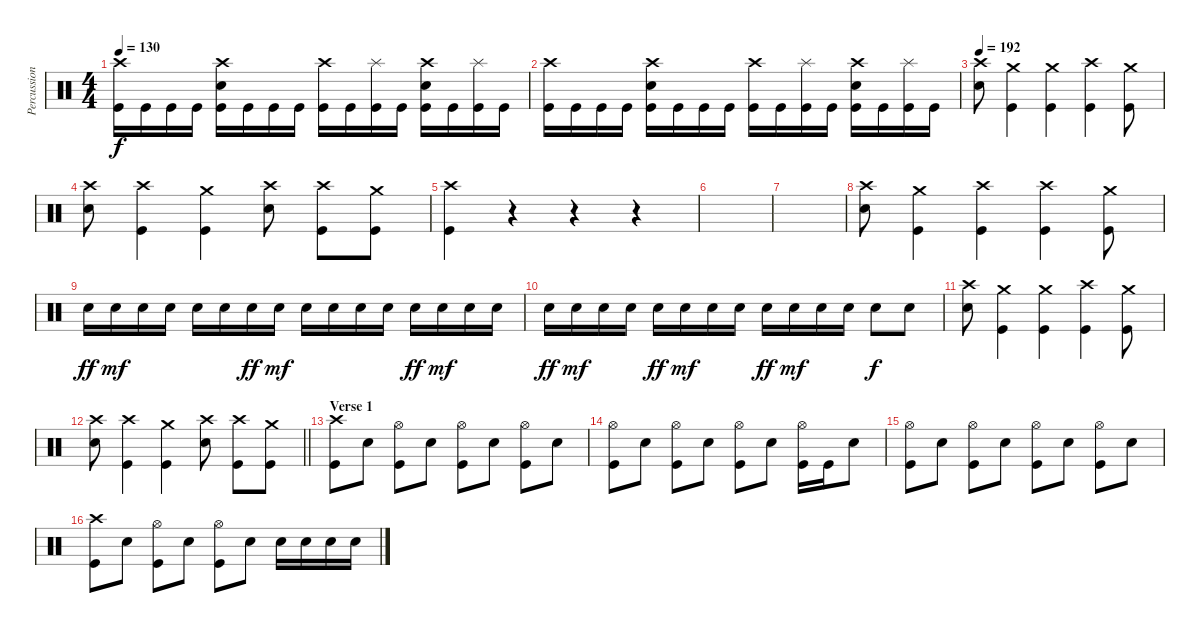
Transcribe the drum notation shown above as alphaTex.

\track ("Percussion" "Percussion") {instrument percussion}
\staff {score}
\articulation defaults
\ts (4 4)
\tempo 130
\clef neutral
\ks c
("Crash high (hit)" "Kick (hit)").16{dy f} "Kick (hit)".16 "Kick (hit)".16 "Kick (hit)".16 ("Crash high (hit)" "Snare (hit) 2" "Kick (hit)").16 "Kick (hit)".16 "Kick (hit)".16 "Kick (hit)".16 ("Crash high (hit)" "Kick (hit)").16 "Kick (hit)".16 ("Splash (hit)" "Kick (hit)").16 "Kick (hit)".16 ("Snare (hit) 2" "Crash high (hit)" "Kick (hit)").16 "Kick (hit)".16 ("Splash (hit)" "Kick (hit)").16 "Kick (hit)".16 |
("Crash high (hit)" "Kick (hit)").16 "Kick (hit)".16 "Kick (hit)".16 "Kick (hit)".16 ("Crash high (hit)" "Snare (hit) 2" "Kick (hit)").16 "Kick (hit)".16 "Kick (hit)".16 "Kick (hit)".16 ("Crash high (hit)" "Kick (hit)").16 "Kick (hit)".16 ("Splash (hit)" "Kick (hit)").16 "Kick (hit)".16 ("Snare (hit) 2" "Crash high (hit)" "Kick (hit)").16 "Kick (hit)".16 ("Splash (hit)" "Kick (hit)").16 "Kick (hit)".16 |
\tempo 192
("Crash high (hit)" "Snare (hit) 2").8 ("Crash medium (hit)" "Kick (hit)").4 ("Crash medium (hit)" "Kick (hit)").4 ("Crash high (hit)" "Kick (hit)").4 ("Crash medium (hit)" "Kick (hit)").8 |
("Crash high (hit)" "Snare (hit) 2").8 ("Crash high (hit)" "Kick (hit)").4 ("Crash medium (hit)" "Kick (hit)").4 ("Snare (hit) 2" "Crash high (hit)").8 ("Crash high (hit)" "Kick (hit)").8 ("Kick (hit)" "Crash medium (hit)").8 |
("Crash high (hit)" "Kick (hit)").4 r.4 r.4 r.4 |
|
|
("Crash high (hit)" "Snare (hit) 2").8 ("Crash medium (hit)" "Kick (hit)").4 ("Crash high (hit)" "Kick (hit)").4 ("Kick (hit)" "Crash high (hit)").4 ("Crash medium (hit)" "Kick (hit)").8 |
"Snare (hit) 2".16{dy ff} "Snare (hit) 2".16{dy mf} "Snare (hit) 2".16 "Snare (hit) 2".16 "Snare (hit) 2".16 "Snare (hit) 2".16 "Snare (hit) 2".16{dy ff} "Snare (hit) 2".16{dy mf} "Snare (hit) 2".16 "Snare (hit) 2".16 "Snare (hit) 2".16 "Snare (hit) 2".16 "Snare (hit) 2".16{dy ff} "Snare (hit) 2".16{dy mf} "Snare (hit) 2".16 "Snare (hit) 2".16 |
"Snare (hit) 2".16{dy ff} "Snare (hit) 2".16{dy mf} "Snare (hit) 2".16 "Snare (hit) 2".16 "Snare (hit) 2".16{dy ff} "Snare (hit) 2".16{dy mf} "Snare (hit) 2".16 "Snare (hit) 2".16 "Snare (hit) 2".16{dy ff} "Snare (hit) 2".16{dy mf} "Snare (hit) 2".16 "Snare (hit) 2".16 "Snare (hit) 2".8{dy f} "Snare (hit) 2".8 |
("Crash high (hit)" "Snare (hit) 2").8 ("Crash medium (hit)" "Kick (hit)").4 ("Crash medium (hit)" "Kick (hit)").4 ("Crash high (hit)" "Kick (hit)").4 ("Crash medium (hit)" "Kick (hit)").8 |
\barLineRight lightlight
("Crash high (hit)" "Snare (hit) 2").8 ("Crash high (hit)" "Kick (hit)").4 ("Crash medium (hit)" "Kick (hit)").4 ("Snare (hit) 2" "Crash high (hit)").8 ("Crash high (hit)" "Kick (hit)").8 ("Kick (hit)" "Crash medium (hit)").8 |
\section ("" "Verse 1")
("Kick (hit)" "Crash high (hit)").8 "Snare (hit) 2".8 ("Hi-Hat (open)" "Kick (hit)").8 "Snare (hit) 2".8 ("Hi-Hat (open)" "Kick (hit)").8 "Snare (hit) 2".8 ("Kick (hit)" "Hi-Hat (open)").8 "Snare (hit) 2".8 |
("Hi-Hat (open)" "Kick (hit)").8 "Snare (hit) 2".8 ("Hi-Hat (open)" "Kick (hit)").8 "Snare (hit) 2".8 ("Hi-Hat (open)" "Kick (hit)").8 "Snare (hit) 2".8 ("Kick (hit)" "Hi-Hat (open)").16 "Kick (hit)".16 "Snare (hit) 2".8 |
("Hi-Hat (open)" "Kick (hit)").8 "Snare (hit) 2".8 ("Hi-Hat (open)" "Kick (hit)").8 "Snare (hit) 2".8 ("Hi-Hat (open)" "Kick (hit)").8 "Snare (hit) 2".8 ("Hi-Hat (open)" "Kick (hit)").8 "Snare (hit) 2".8 |
("Kick (hit)" "Crash high (hit)").8 "Snare (hit) 2".8 ("Hi-Hat (open)" "Kick (hit)").8 "Snare (hit) 2".8 ("Hi-Hat (open)" "Kick (hit)").8 "Snare (hit) 2".8 "Snare (hit) 2".16 "Snare (hit) 2".16 "Snare (hit) 2".16 "Snare (hit) 2".16
